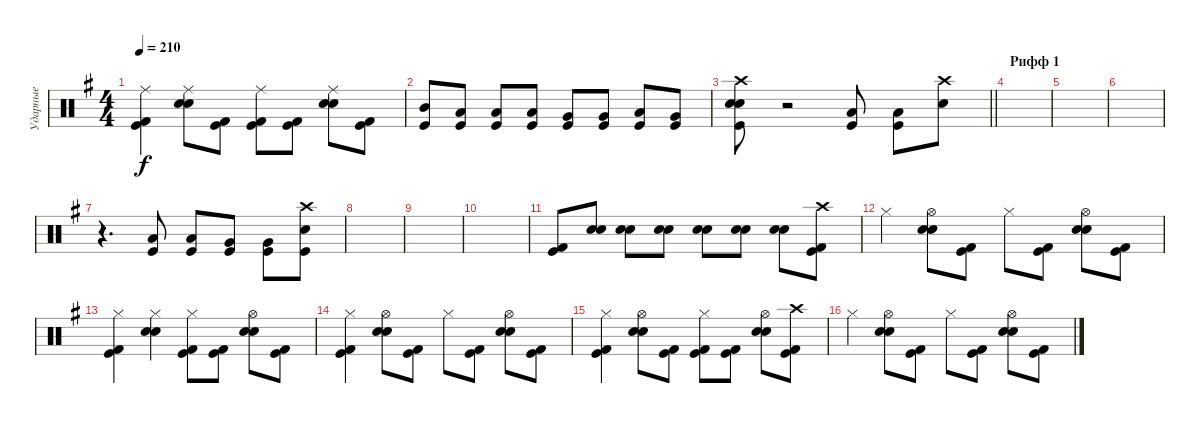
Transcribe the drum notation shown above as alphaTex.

\track ("Ударные" "Ударные") {instrument percussion}
\staff {score}
\articulation defaults
\ts (4 4)
\tempo 210
\clef neutral
\ks g
("Ride (middle)" "Kick (hit) 2" "Kick (hit)").4{dy f} ("Ride (middle)" "Electric Snare (hit)" "Snare (hit) 2").8 ("Kick (hit) 2" "Kick (hit)").8 ("Ride (middle)" "Kick (hit) 2" "Kick (hit)").8 ("Kick (hit) 2" "Kick (hit)").8 ("Ride (middle)" "Electric Snare (hit)" "Snare (hit) 2").8 ("Kick (hit) 2" "Kick (hit)").8 |
("Mid Tom (hit)" "Kick (hit)").8 ("Low Tom (hit)" "Kick (hit)").8 ("Low Tom (hit)" "Kick (hit)").8 ("Low Tom (hit)" "Kick (hit)").8 ("Very Low Tom (hit)" "Kick (hit)").8 ("Very Low Tom (hit)" "Kick (hit)").8 ("Low Tom (hit)" "Kick (hit)").8 ("Very Low Tom (hit)" "Kick (hit)").8 |
\barLineRight lightlight
("Crash high (hit)" "Electric Snare (hit)" "Snare (hit) 2" "Kick (hit)").8 r.2 ("Low Tom (hit)" "Kick (hit)").8 ("Low Tom (hit)" "Kick (hit)").8 ("Crash high (hit)" "Electric Snare (hit)").8 |
\section ("" "Рифф 1")
|
|
|
r.4{d} ("Low Tom (hit)" "Kick (hit)").8 ("Low Tom (hit)" "Kick (hit)").8 ("Very Low Tom (hit)" "Kick (hit)").8 ("Very Low Tom (hit)" "Kick (hit)").8 ("Crash high (hit)" "Electric Snare (hit)" "Kick (hit)").8 |
|
|
|
("Kick (hit) 2" "Kick (hit)").8 ("Electric Snare (hit)" "Snare (hit) 2").8 ("Electric Snare (hit)" "Snare (hit) 2").8 ("Electric Snare (hit)" "Snare (hit) 2").8 ("Electric Snare (hit)" "Snare (hit) 2").8 ("Electric Snare (hit)" "Snare (hit) 2").8 ("Electric Snare (hit)" "Snare (hit) 2").8 ("Crash high (hit)" "Kick (hit) 2" "Kick (hit)").8 |
"Hi-Hat (closed)".4 ("Hi-Hat (open)" "Electric Snare (hit)" "Snare (hit) 2").8 ("Kick (hit) 2" "Kick (hit)").8 "Hi-Hat (closed)".8 ("Kick (hit) 2" "Kick (hit)").8 ("Hi-Hat (open)" "Electric Snare (hit)" "Snare (hit) 2").8 ("Kick (hit) 2" "Kick (hit)").8 |
("Hi-Hat (closed)" "Kick (hit) 2" "Kick (hit)").4 ("Hi-Hat (closed)" "Electric Snare (hit)" "Snare (hit) 2").4 ("Hi-Hat (closed)" "Kick (hit) 2" "Kick (hit)").8 ("Kick (hit) 2" "Kick (hit)").8 ("Hi-Hat (open)" "Electric Snare (hit)" "Snare (hit) 2").8 ("Kick (hit) 2" "Kick (hit)").8 |
("Hi-Hat (closed)" "Kick (hit) 2" "Kick (hit)").4 ("Hi-Hat (open)" "Electric Snare (hit)" "Snare (hit) 2").8 ("Kick (hit) 2" "Kick (hit)").8 "Hi-Hat (closed)".8 ("Kick (hit) 2" "Kick (hit)").8 ("Hi-Hat (open)" "Electric Snare (hit)" "Snare (hit) 2").8 ("Kick (hit) 2" "Kick (hit)").8 |
("Hi-Hat (closed)" "Kick (hit) 2" "Kick (hit)").4 ("Hi-Hat (open)" "Electric Snare (hit)" "Snare (hit) 2").8 ("Kick (hit) 2" "Kick (hit)").8 ("Hi-Hat (closed)" "Kick (hit) 2" "Kick (hit)").8 ("Kick (hit) 2" "Kick (hit)").8 ("Hi-Hat (open)" "Electric Snare (hit)" "Snare (hit) 2").8 ("Crash high (hit)" "Kick (hit) 2" "Kick (hit)").8 |
"Hi-Hat (closed)".4 ("Hi-Hat (open)" "Electric Snare (hit)" "Snare (hit) 2").8 ("Kick (hit) 2" "Kick (hit)").8 "Hi-Hat (closed)".8 ("Kick (hit) 2" "Kick (hit)").8 ("Hi-Hat (open)" "Electric Snare (hit)" "Snare (hit) 2").8 ("Kick (hit) 2" "Kick (hit)").8
